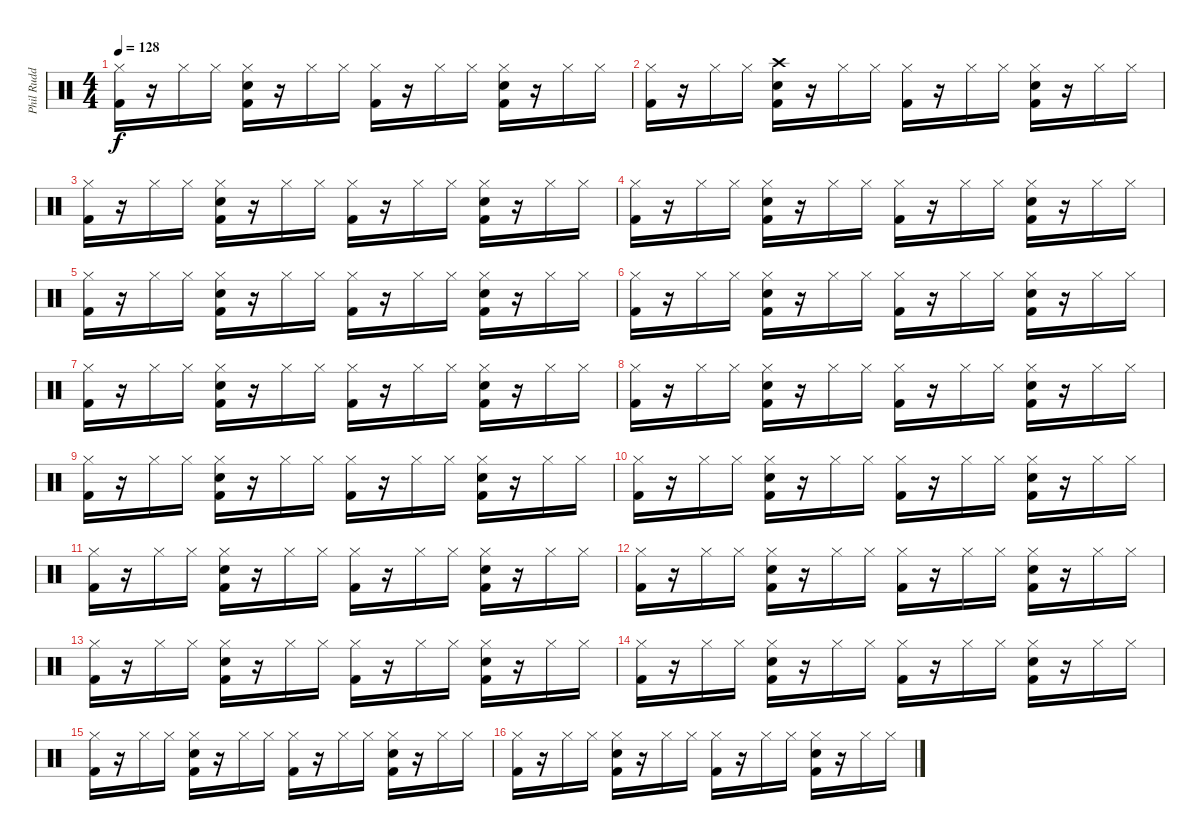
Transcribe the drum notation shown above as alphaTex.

\track ("Phil Rudd" "Phil Rudd") {instrument percussion}
\staff {score}
\articulation defaults
\ts (4 4)
\tempo 128
\clef neutral
\ks c
("Hi-Hat (closed)" "Kick (hit) 2").16{dy f} r.16 "Hi-Hat (closed)".16 "Hi-Hat (closed)".16 ("Hi-Hat (closed)" "Snare (hit) 2" "Kick (hit) 2").16 r.16 "Hi-Hat (closed)".16 "Hi-Hat (closed)".16 ("Hi-Hat (closed)" "Kick (hit) 2").16 r.16 "Hi-Hat (closed)".16 "Hi-Hat (closed)".16 ("Hi-Hat (closed)" "Snare (hit) 2" "Kick (hit) 2").16 r.16 "Hi-Hat (closed)".16 "Hi-Hat (closed)".16 |
("Hi-Hat (closed)" "Kick (hit) 2").16 r.16 "Hi-Hat (closed)".16 "Hi-Hat (closed)".16 ("Crash high (hit)" "Snare (hit) 2" "Kick (hit) 2").16 r.16 "Hi-Hat (closed)".16 "Hi-Hat (closed)".16 ("Hi-Hat (closed)" "Kick (hit) 2").16 r.16 "Hi-Hat (closed)".16 "Hi-Hat (closed)".16 ("Hi-Hat (closed)" "Snare (hit) 2" "Kick (hit) 2").16 r.16 "Hi-Hat (closed)".16 "Hi-Hat (closed)".16 |
("Hi-Hat (closed)" "Kick (hit) 2").16 r.16 "Hi-Hat (closed)".16 "Hi-Hat (closed)".16 ("Hi-Hat (closed)" "Snare (hit) 2" "Kick (hit) 2").16 r.16 "Hi-Hat (closed)".16 "Hi-Hat (closed)".16 ("Hi-Hat (closed)" "Kick (hit) 2").16 r.16 "Hi-Hat (closed)".16 "Hi-Hat (closed)".16 ("Hi-Hat (closed)" "Snare (hit) 2" "Kick (hit) 2").16 r.16 "Hi-Hat (closed)".16 "Hi-Hat (closed)".16 |
("Hi-Hat (closed)" "Kick (hit) 2").16 r.16 "Hi-Hat (closed)".16 "Hi-Hat (closed)".16 ("Hi-Hat (closed)" "Snare (hit) 2" "Kick (hit) 2").16 r.16 "Hi-Hat (closed)".16 "Hi-Hat (closed)".16 ("Hi-Hat (closed)" "Kick (hit) 2").16 r.16 "Hi-Hat (closed)".16 "Hi-Hat (closed)".16 ("Hi-Hat (closed)" "Snare (hit) 2" "Kick (hit) 2").16 r.16 "Hi-Hat (closed)".16 "Hi-Hat (closed)".16 |
("Hi-Hat (closed)" "Kick (hit) 2").16 r.16 "Hi-Hat (closed)".16 "Hi-Hat (closed)".16 ("Hi-Hat (closed)" "Snare (hit) 2" "Kick (hit) 2").16 r.16 "Hi-Hat (closed)".16 "Hi-Hat (closed)".16 ("Hi-Hat (closed)" "Kick (hit) 2").16 r.16 "Hi-Hat (closed)".16 "Hi-Hat (closed)".16 ("Hi-Hat (closed)" "Snare (hit) 2" "Kick (hit) 2").16 r.16 "Hi-Hat (closed)".16 "Hi-Hat (closed)".16 |
("Hi-Hat (closed)" "Kick (hit) 2").16 r.16 "Hi-Hat (closed)".16 "Hi-Hat (closed)".16 ("Hi-Hat (closed)" "Snare (hit) 2" "Kick (hit) 2").16 r.16 "Hi-Hat (closed)".16 "Hi-Hat (closed)".16 ("Hi-Hat (closed)" "Kick (hit) 2").16 r.16 "Hi-Hat (closed)".16 "Hi-Hat (closed)".16 ("Hi-Hat (closed)" "Snare (hit) 2" "Kick (hit) 2").16 r.16 "Hi-Hat (closed)".16 "Hi-Hat (closed)".16 |
("Hi-Hat (closed)" "Kick (hit) 2").16 r.16 "Hi-Hat (closed)".16 "Hi-Hat (closed)".16 ("Hi-Hat (closed)" "Snare (hit) 2" "Kick (hit) 2").16 r.16 "Hi-Hat (closed)".16 "Hi-Hat (closed)".16 ("Hi-Hat (closed)" "Kick (hit) 2").16 r.16 "Hi-Hat (closed)".16 "Hi-Hat (closed)".16 ("Hi-Hat (closed)" "Snare (hit) 2" "Kick (hit) 2").16 r.16 "Hi-Hat (closed)".16 "Hi-Hat (closed)".16 |
("Hi-Hat (closed)" "Kick (hit) 2").16 r.16 "Hi-Hat (closed)".16 "Hi-Hat (closed)".16 ("Hi-Hat (closed)" "Snare (hit) 2" "Kick (hit) 2").16 r.16 "Hi-Hat (closed)".16 "Hi-Hat (closed)".16 ("Hi-Hat (closed)" "Kick (hit) 2").16 r.16 "Hi-Hat (closed)".16 "Hi-Hat (closed)".16 ("Hi-Hat (closed)" "Snare (hit) 2" "Kick (hit) 2").16 r.16 "Hi-Hat (closed)".16 "Hi-Hat (closed)".16 |
("Hi-Hat (closed)" "Kick (hit) 2").16 r.16 "Hi-Hat (closed)".16 "Hi-Hat (closed)".16 ("Hi-Hat (closed)" "Snare (hit) 2" "Kick (hit) 2").16 r.16 "Hi-Hat (closed)".16 "Hi-Hat (closed)".16 ("Hi-Hat (closed)" "Kick (hit) 2").16 r.16 "Hi-Hat (closed)".16 "Hi-Hat (closed)".16 ("Hi-Hat (closed)" "Snare (hit) 2" "Kick (hit) 2").16 r.16 "Hi-Hat (closed)".16 "Hi-Hat (closed)".16 |
("Hi-Hat (closed)" "Kick (hit) 2").16 r.16 "Hi-Hat (closed)".16 "Hi-Hat (closed)".16 ("Hi-Hat (closed)" "Snare (hit) 2" "Kick (hit) 2").16 r.16 "Hi-Hat (closed)".16 "Hi-Hat (closed)".16 ("Hi-Hat (closed)" "Kick (hit) 2").16 r.16 "Hi-Hat (closed)".16 "Hi-Hat (closed)".16 ("Hi-Hat (closed)" "Snare (hit) 2" "Kick (hit) 2").16 r.16 "Hi-Hat (closed)".16 "Hi-Hat (closed)".16 |
("Hi-Hat (closed)" "Kick (hit) 2").16 r.16 "Hi-Hat (closed)".16 "Hi-Hat (closed)".16 ("Hi-Hat (closed)" "Snare (hit) 2" "Kick (hit) 2").16 r.16 "Hi-Hat (closed)".16 "Hi-Hat (closed)".16 ("Hi-Hat (closed)" "Kick (hit) 2").16 r.16 "Hi-Hat (closed)".16 "Hi-Hat (closed)".16 ("Hi-Hat (closed)" "Snare (hit) 2" "Kick (hit) 2").16 r.16 "Hi-Hat (closed)".16 "Hi-Hat (closed)".16 |
("Hi-Hat (closed)" "Kick (hit) 2").16 r.16 "Hi-Hat (closed)".16 "Hi-Hat (closed)".16 ("Hi-Hat (closed)" "Snare (hit) 2" "Kick (hit) 2").16 r.16 "Hi-Hat (closed)".16 "Hi-Hat (closed)".16 ("Hi-Hat (closed)" "Kick (hit) 2").16 r.16 "Hi-Hat (closed)".16 "Hi-Hat (closed)".16 ("Hi-Hat (closed)" "Snare (hit) 2" "Kick (hit) 2").16 r.16 "Hi-Hat (closed)".16 "Hi-Hat (closed)".16 |
("Hi-Hat (closed)" "Kick (hit) 2").16 r.16 "Hi-Hat (closed)".16 "Hi-Hat (closed)".16 ("Hi-Hat (closed)" "Snare (hit) 2" "Kick (hit) 2").16 r.16 "Hi-Hat (closed)".16 "Hi-Hat (closed)".16 ("Hi-Hat (closed)" "Kick (hit) 2").16 r.16 "Hi-Hat (closed)".16 "Hi-Hat (closed)".16 ("Hi-Hat (closed)" "Snare (hit) 2" "Kick (hit) 2").16 r.16 "Hi-Hat (closed)".16 "Hi-Hat (closed)".16 |
("Hi-Hat (closed)" "Kick (hit) 2").16 r.16 "Hi-Hat (closed)".16 "Hi-Hat (closed)".16 ("Hi-Hat (closed)" "Snare (hit) 2" "Kick (hit) 2").16 r.16 "Hi-Hat (closed)".16 "Hi-Hat (closed)".16 ("Hi-Hat (closed)" "Kick (hit) 2").16 r.16 "Hi-Hat (closed)".16 "Hi-Hat (closed)".16 ("Hi-Hat (closed)" "Snare (hit) 2" "Kick (hit) 2").16 r.16 "Hi-Hat (closed)".16 "Hi-Hat (closed)".16 |
("Hi-Hat (closed)" "Kick (hit) 2").16 r.16 "Hi-Hat (closed)".16 "Hi-Hat (closed)".16 ("Hi-Hat (closed)" "Snare (hit) 2" "Kick (hit) 2").16 r.16 "Hi-Hat (closed)".16 "Hi-Hat (closed)".16 ("Hi-Hat (closed)" "Kick (hit) 2").16 r.16 "Hi-Hat (closed)".16 "Hi-Hat (closed)".16 ("Hi-Hat (closed)" "Snare (hit) 2" "Kick (hit) 2").16 r.16 "Hi-Hat (closed)".16 "Hi-Hat (closed)".16 |
("Hi-Hat (closed)" "Kick (hit) 2").16 r.16 "Hi-Hat (closed)".16 "Hi-Hat (closed)".16 ("Hi-Hat (closed)" "Snare (hit) 2" "Kick (hit) 2").16 r.16 "Hi-Hat (closed)".16 "Hi-Hat (closed)".16 ("Hi-Hat (closed)" "Kick (hit) 2").16 r.16 "Hi-Hat (closed)".16 "Hi-Hat (closed)".16 ("Hi-Hat (closed)" "Snare (hit) 2" "Kick (hit) 2").16 r.16 "Hi-Hat (closed)".16 "Hi-Hat (closed)".16
